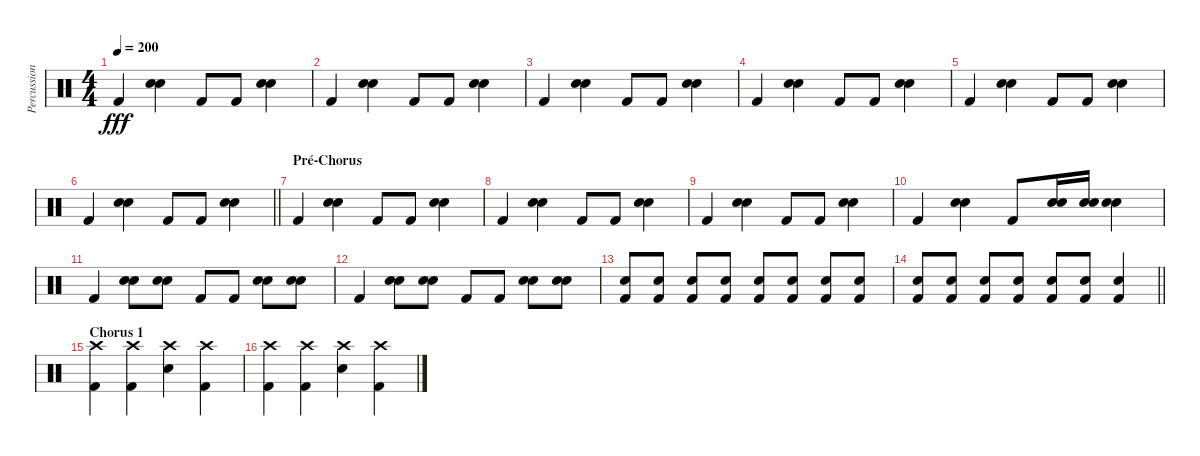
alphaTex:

\track ("Percussions" "Percussion") {instrument percussion}
\staff {score}
\articulation defaults
\ts (4 4)
\tempo 200
\clef neutral
\ks c "Kick (hit) 2".4{dy fff}
("Electric Snare (hit)" "Electric Snare (hit)").4 "Kick (hit) 2".8 "Kick (hit) 2".8 ("Electric Snare (hit)" "Electric Snare (hit)").4 |
"Kick (hit) 2".4 ("Electric Snare (hit)" "Electric Snare (hit)").4 "Kick (hit) 2".8 "Kick (hit) 2".8 ("Electric Snare (hit)" "Electric Snare (hit)").4 |
"Kick (hit) 2".4 ("Electric Snare (hit)" "Electric Snare (hit)").4 "Kick (hit) 2".8 "Kick (hit) 2".8 ("Electric Snare (hit)" "Electric Snare (hit)").4 |
"Kick (hit) 2".4 ("Electric Snare (hit)" "Electric Snare (hit)").4 "Kick (hit) 2".8 "Kick (hit) 2".8 ("Electric Snare (hit)" "Electric Snare (hit)").4 |
"Kick (hit) 2".4 ("Electric Snare (hit)" "Electric Snare (hit)").4 "Kick (hit) 2".8 "Kick (hit) 2".8 ("Electric Snare (hit)" "Electric Snare (hit)").4 |
\barLineRight lightlight "Kick (hit) 2".4
("Electric Snare (hit)" "Electric Snare (hit)").4 "Kick (hit) 2".8 "Kick (hit) 2".8 ("Electric Snare (hit)" "Electric Snare (hit)").4 |
\section ("" "Pré-Chorus")
"Kick (hit) 2".4 ("Electric Snare (hit)" "Electric Snare (hit)").4 "Kick (hit) 2".8 "Kick (hit) 2".8 ("Electric Snare (hit)" "Electric Snare (hit)").4 |
"Kick (hit) 2".4 ("Electric Snare (hit)" "Electric Snare (hit)").4 "Kick (hit) 2".8 "Kick (hit) 2".8 ("Electric Snare (hit)" "Electric Snare (hit)").4 |
"Kick (hit) 2".4 ("Electric Snare (hit)" "Electric Snare (hit)").4 "Kick (hit) 2".8 "Kick (hit) 2".8 ("Electric Snare (hit)" "Electric Snare (hit)").4 |
"Kick (hit) 2".4 ("Electric Snare (hit)" "Electric Snare (hit)").4 "Kick (hit) 2".8 ("Electric Snare (hit)" "Electric Snare (hit)").16 ("Electric Snare (hit)" "Electric Snare (hit)").16 ("Electric Snare (hit)" "Electric Snare (hit)").4 |
"Kick (hit) 2".4 ("Electric Snare (hit)" "Electric Snare (hit)").8 ("Electric Snare (hit)" "Electric Snare (hit)").8 "Kick (hit) 2".8 "Kick (hit) 2".8 ("Electric Snare (hit)" "Electric Snare (hit)").8 ("Electric Snare (hit)" "Electric Snare (hit)").8 |
"Kick (hit) 2".4 ("Electric Snare (hit)" "Electric Snare (hit)").8 ("Electric Snare (hit)" "Electric Snare (hit)").8 "Kick (hit) 2".8 "Kick (hit) 2".8 ("Electric Snare (hit)" "Electric Snare (hit)").8 ("Electric Snare (hit)" "Electric Snare (hit)").8 |
("Electric Snare (hit)" "Kick (hit) 2").8 ("Electric Snare (hit)" "Kick (hit) 2").8 ("Electric Snare (hit)" "Kick (hit) 2").8 ("Electric Snare (hit)" "Kick (hit) 2").8 ("Electric Snare (hit)" "Kick (hit) 2").8 ("Electric Snare (hit)" "Kick (hit) 2").8 ("Electric Snare (hit)" "Kick (hit) 2").8 ("Electric Snare (hit)" "Kick (hit) 2").8 |
\barLineRight lightlight
("Electric Snare (hit)" "Kick (hit) 2").8 ("Electric Snare (hit)" "Kick (hit) 2").8 ("Electric Snare (hit)" "Kick (hit) 2").8 ("Electric Snare (hit)" "Kick (hit) 2").8 ("Electric Snare (hit)" "Kick (hit) 2").8 ("Electric Snare (hit)" "Kick (hit) 2").8 ("Electric Snare (hit)" "Kick (hit) 2").4 |
\section ("" "Chorus 1")
("Crash high (hit)" "Kick (hit) 2").4 ("Crash high (hit)" "Kick (hit) 2").4 ("Crash high (hit)" "Electric Snare (hit)").4 ("Crash high (hit)" "Kick (hit) 2").4 |
("Crash high (hit)" "Kick (hit) 2").4 ("Crash high (hit)" "Kick (hit) 2").4 ("Crash high (hit)" "Electric Snare (hit)").4 ("Crash high (hit)" "Kick (hit) 2").4
